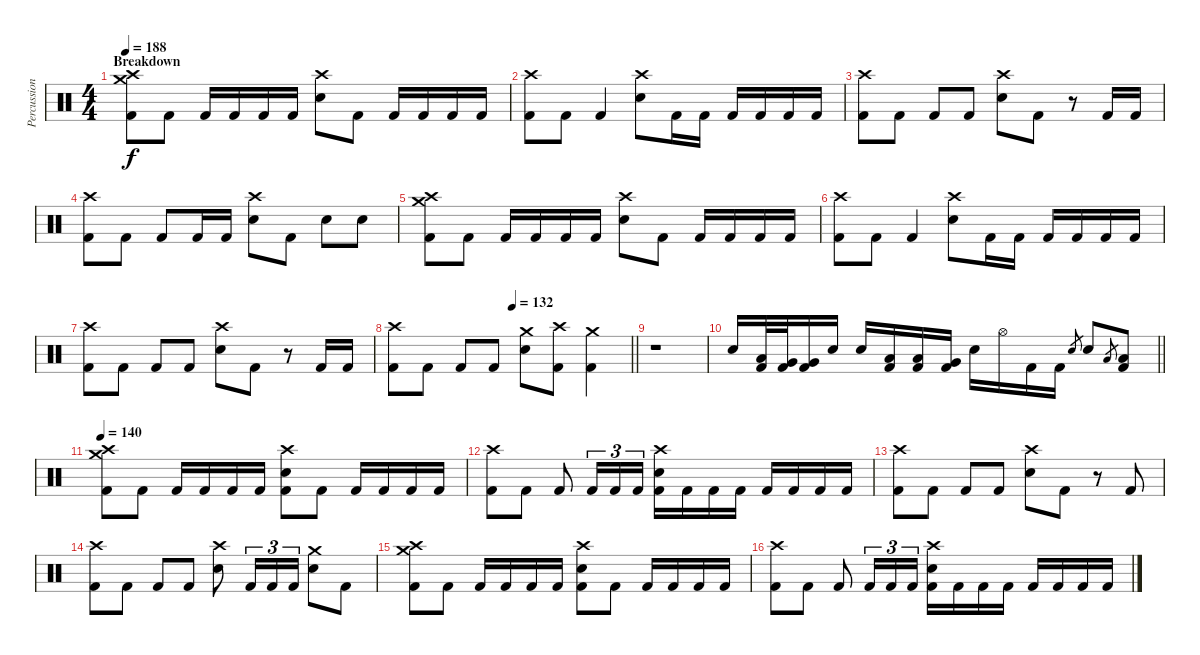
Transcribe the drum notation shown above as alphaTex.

\track ("Percussion" "Percussion") {instrument percussion}
\staff {score}
\articulation defaults
\ts (4 4)
\section ("" "Breakdown")
\tempo 188
\clef neutral
\ks c
("Crash medium (hit)" "Crash high (hit)" "Kick (hit) 2").8{dy f} "Kick (hit) 2".8 "Kick (hit) 2".16 "Kick (hit) 2".16 "Kick (hit) 2".16 "Kick (hit) 2".16 ("Crash high (hit)" "Electric Snare (hit)").8 "Kick (hit) 2".8 "Kick (hit) 2".16 "Kick (hit) 2".16 "Kick (hit) 2".16 "Kick (hit) 2".16 |
("Crash high (hit)" "Kick (hit) 2").8 "Kick (hit) 2".8 "Kick (hit) 2".4 ("Crash high (hit)" "Electric Snare (hit)").8 "Kick (hit) 2".16 "Kick (hit) 2".16 "Kick (hit) 2".16 "Kick (hit) 2".16 "Kick (hit) 2".16 "Kick (hit) 2".16 |
("Crash high (hit)" "Kick (hit) 2").8 "Kick (hit) 2".8 "Kick (hit) 2".8 "Kick (hit) 2".8 ("Crash high (hit)" "Electric Snare (hit)").8 "Kick (hit) 2".8 r.8 "Kick (hit) 2".16 "Kick (hit) 2".16 |
("Crash high (hit)" "Kick (hit) 2").8 "Kick (hit) 2".8 "Kick (hit) 2".8 "Kick (hit) 2".16 "Kick (hit) 2".16 ("Crash high (hit)" "Electric Snare (hit)").8 "Kick (hit) 2".8 "Electric Snare (hit)".8 "Electric Snare (hit)".8 |
("Crash medium (hit)" "Crash high (hit)" "Kick (hit) 2").8 "Kick (hit) 2".8 "Kick (hit) 2".16 "Kick (hit) 2".16 "Kick (hit) 2".16 "Kick (hit) 2".16 ("Crash high (hit)" "Electric Snare (hit)").8 "Kick (hit) 2".8 "Kick (hit) 2".16 "Kick (hit) 2".16 "Kick (hit) 2".16 "Kick (hit) 2".16 |
("Crash high (hit)" "Kick (hit) 2").8 "Kick (hit) 2".8 "Kick (hit) 2".4 ("Crash high (hit)" "Electric Snare (hit)").8 "Kick (hit) 2".16 "Kick (hit) 2".16 "Kick (hit) 2".16 "Kick (hit) 2".16 "Kick (hit) 2".16 "Kick (hit) 2".16 |
("Crash high (hit)" "Kick (hit) 2").8 "Kick (hit) 2".8 "Kick (hit) 2".8 "Kick (hit) 2".8 ("Crash high (hit)" "Electric Snare (hit)").8 "Kick (hit) 2".8 r.8 "Kick (hit) 2".16 "Kick (hit) 2".16 |
\tempo (132 0.5)
\barLineRight lightlight
("Crash high (hit)" "Kick (hit) 2").8 "Kick (hit) 2".8 "Kick (hit) 2".8 "Kick (hit) 2".8 ("Crash medium (hit)" "Electric Snare (hit)").8 ("Crash high (hit)" "Kick (hit) 2").8 ("Crash medium (hit)" "Kick (hit) 2").4 |
\section ("" "")
r.1 |
\barLineRight lightlight "Electric Snare (hit)".16
("Low Tom (hit)" "Kick (hit) 2").32 ("Very Low Tom (hit)" "Kick (hit) 2").32 ("Very Low Tom (hit)" "Kick (hit) 2").16 "Electric Snare (hit)".16 "Electric Snare (hit)".16 ("Low Tom (hit)" "Kick (hit) 2").16 ("Low Tom (hit)" "Kick (hit) 2").16 ("Very Low Tom (hit)" "Kick (hit) 2").16 "Electric Snare (hit)".16 "Hi-Hat (open)".16 "Kick (hit) 2".16 "Kick (hit) 2".16 "Electric Snare (hit)".8{gr} "Electric Snare (hit)".8 "Low Tom (hit)".8{gr} ("Low Tom (hit)" "Kick (hit) 2").8 |
\tempo 140
("Crash medium (hit)" "Crash high (hit)" "Kick (hit) 2").8 "Kick (hit) 2".8 "Kick (hit) 2".16 "Kick (hit) 2".16 "Kick (hit) 2".16 "Kick (hit) 2".16 ("Crash high (hit)" "Electric Snare (hit)" "Kick (hit) 2").8 "Kick (hit) 2".8 "Kick (hit) 2".16 "Kick (hit) 2".16 "Kick (hit) 2".16 "Kick (hit) 2".16 |
("Crash high (hit)" "Kick (hit) 2").8 "Kick (hit) 2".8 "Kick (hit) 2".8 "Kick (hit) 2".16{tu (3 2)} "Kick (hit) 2".16{tu (3 2)} "Kick (hit) 2".16{tu (3 2)} ("Crash high (hit)" "Electric Snare (hit)" "Kick (hit) 2").16 "Kick (hit) 2".16 "Kick (hit) 2".16 "Kick (hit) 2".16 "Kick (hit) 2".16 "Kick (hit) 2".16 "Kick (hit) 2".16 "Kick (hit) 2".16 |
("Crash high (hit)" "Kick (hit) 2").8 "Kick (hit) 2".8 "Kick (hit) 2".8 "Kick (hit) 2".8 ("Crash high (hit)" "Electric Snare (hit)").8 "Kick (hit) 2".8 r.8 "Kick (hit) 2".8 |
("Crash high (hit)" "Kick (hit) 2").8 "Kick (hit) 2".8 "Kick (hit) 2".8 "Kick (hit) 2".8 ("Crash high (hit)" "Electric Snare (hit)").8 "Kick (hit) 2".16{tu (3 2)} "Kick (hit) 2".16{tu (3 2)} "Kick (hit) 2".16{tu (3 2)} ("Crash medium (hit)" "Electric Snare (hit)").8 "Kick (hit) 2".8 |
("Crash medium (hit)" "Crash high (hit)" "Kick (hit) 2").8 "Kick (hit) 2".8 "Kick (hit) 2".16 "Kick (hit) 2".16 "Kick (hit) 2".16 "Kick (hit) 2".16 ("Crash high (hit)" "Electric Snare (hit)" "Kick (hit) 2").8 "Kick (hit) 2".8 "Kick (hit) 2".16 "Kick (hit) 2".16 "Kick (hit) 2".16 "Kick (hit) 2".16 |
("Crash high (hit)" "Kick (hit) 2").8 "Kick (hit) 2".8 "Kick (hit) 2".8 "Kick (hit) 2".16{tu (3 2)} "Kick (hit) 2".16{tu (3 2)} "Kick (hit) 2".16{tu (3 2)} ("Crash high (hit)" "Electric Snare (hit)" "Kick (hit) 2").16 "Kick (hit) 2".16 "Kick (hit) 2".16 "Kick (hit) 2".16 "Kick (hit) 2".16 "Kick (hit) 2".16 "Kick (hit) 2".16 "Kick (hit) 2".16
